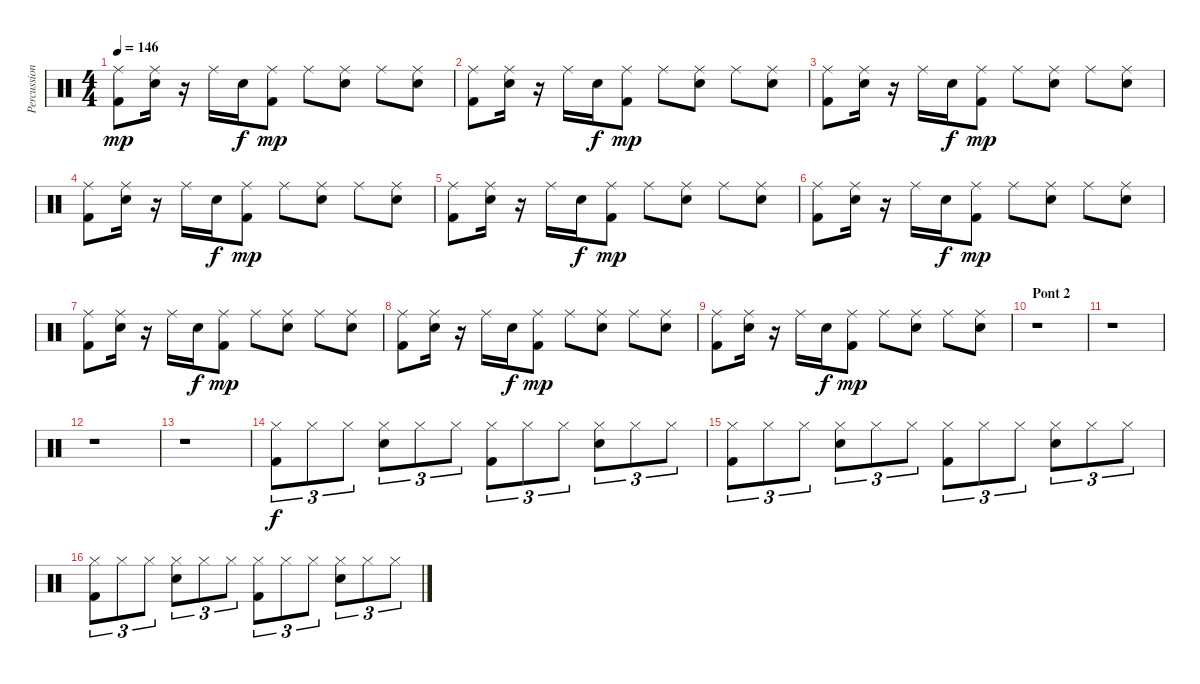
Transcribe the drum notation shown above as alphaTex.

\track ("Percussions" "Percussion") {instrument percussion}
\staff {score}
\articulation defaults
\ts (4 4)
\tempo 146
\clef neutral
\ks c
("Ride (middle)" "Kick (hit) 2").8{dy mp} ("Ride (middle)" "Electric Snare (hit)").16 r.16 "Ride (middle)".16 "Electric Snare (hit)".16{dy f} ("Ride (middle)" "Kick (hit) 2").8{dy mp} "Ride (middle)".8 ("Ride (middle)" "Electric Snare (hit)").8 "Ride (middle)".8 ("Ride (middle)" "Electric Snare (hit)").8 |
("Ride (middle)" "Kick (hit) 2").8 ("Ride (middle)" "Electric Snare (hit)").16 r.16 "Ride (middle)".16 "Electric Snare (hit)".16{dy f} ("Ride (middle)" "Kick (hit) 2").8{dy mp} "Ride (middle)".8 ("Ride (middle)" "Electric Snare (hit)").8 "Ride (middle)".8 ("Ride (middle)" "Electric Snare (hit)").8 |
("Ride (middle)" "Kick (hit) 2").8 ("Ride (middle)" "Electric Snare (hit)").16 r.16 "Ride (middle)".16 "Electric Snare (hit)".16{dy f} ("Ride (middle)" "Kick (hit) 2").8{dy mp} "Ride (middle)".8 ("Ride (middle)" "Electric Snare (hit)").8 "Ride (middle)".8 ("Ride (middle)" "Electric Snare (hit)").8 |
("Ride (middle)" "Kick (hit) 2").8 ("Ride (middle)" "Electric Snare (hit)").16 r.16 "Ride (middle)".16 "Electric Snare (hit)".16{dy f} ("Ride (middle)" "Kick (hit) 2").8{dy mp} "Ride (middle)".8 ("Ride (middle)" "Electric Snare (hit)").8 "Ride (middle)".8 ("Ride (middle)" "Electric Snare (hit)").8 |
("Ride (middle)" "Kick (hit) 2").8 ("Ride (middle)" "Electric Snare (hit)").16 r.16 "Ride (middle)".16 "Electric Snare (hit)".16{dy f} ("Ride (middle)" "Kick (hit) 2").8{dy mp} "Ride (middle)".8 ("Ride (middle)" "Electric Snare (hit)").8 "Ride (middle)".8 ("Ride (middle)" "Electric Snare (hit)").8 |
("Ride (middle)" "Kick (hit) 2").8 ("Ride (middle)" "Electric Snare (hit)").16 r.16 "Ride (middle)".16 "Electric Snare (hit)".16{dy f} ("Ride (middle)" "Kick (hit) 2").8{dy mp} "Ride (middle)".8 ("Ride (middle)" "Electric Snare (hit)").8 "Ride (middle)".8 ("Ride (middle)" "Electric Snare (hit)").8 |
("Ride (middle)" "Kick (hit) 2").8 ("Ride (middle)" "Electric Snare (hit)").16 r.16 "Ride (middle)".16 "Electric Snare (hit)".16{dy f} ("Ride (middle)" "Kick (hit) 2").8{dy mp} "Ride (middle)".8 ("Ride (middle)" "Electric Snare (hit)").8 "Ride (middle)".8 ("Ride (middle)" "Electric Snare (hit)").8 |
("Ride (middle)" "Kick (hit) 2").8 ("Ride (middle)" "Electric Snare (hit)").16 r.16 "Ride (middle)".16 "Electric Snare (hit)".16{dy f} ("Ride (middle)" "Kick (hit) 2").8{dy mp} "Ride (middle)".8 ("Ride (middle)" "Electric Snare (hit)").8 "Ride (middle)".8 ("Ride (middle)" "Electric Snare (hit)").8 |
("Ride (middle)" "Kick (hit) 2").8 ("Ride (middle)" "Electric Snare (hit)").16 r.16 "Ride (middle)".16 "Electric Snare (hit)".16{dy f} ("Ride (middle)" "Kick (hit) 2").8{dy mp} "Ride (middle)".8 ("Ride (middle)" "Electric Snare (hit)").8 "Ride (middle)".8 ("Ride (middle)" "Electric Snare (hit)").8 |
\section ("" "Pont 2")
r.1 |
r.1 |
r.1 |
r.1 |
("Hi-Hat (closed)" "Kick (hit) 2").8{tu (3 2) dy f} "Hi-Hat (closed)".8{tu (3 2)} "Hi-Hat (closed)".8{tu (3 2)} ("Hi-Hat (closed)" "Electric Snare (hit)").8{tu (3 2)} "Hi-Hat (closed)".8{tu (3 2)} "Hi-Hat (closed)".8{tu (3 2)} ("Hi-Hat (closed)" "Kick (hit) 2").8{tu (3 2)} "Hi-Hat (closed)".8{tu (3 2)} "Hi-Hat (closed)".8{tu (3 2)} ("Hi-Hat (closed)" "Electric Snare (hit)").8{tu (3 2)} "Hi-Hat (closed)".8{tu (3 2)} "Hi-Hat (closed)".8{tu (3 2)} |
("Hi-Hat (closed)" "Kick (hit) 2").8{tu (3 2)} "Hi-Hat (closed)".8{tu (3 2)} "Hi-Hat (closed)".8{tu (3 2)} ("Hi-Hat (closed)" "Electric Snare (hit)").8{tu (3 2)} "Hi-Hat (closed)".8{tu (3 2)} "Hi-Hat (closed)".8{tu (3 2)} ("Hi-Hat (closed)" "Kick (hit) 2").8{tu (3 2)} "Hi-Hat (closed)".8{tu (3 2)} "Hi-Hat (closed)".8{tu (3 2)} ("Hi-Hat (closed)" "Electric Snare (hit)").8{tu (3 2)} "Hi-Hat (closed)".8{tu (3 2)} "Hi-Hat (closed)".8{tu (3 2)} |
("Hi-Hat (closed)" "Kick (hit) 2").8{tu (3 2)} "Hi-Hat (closed)".8{tu (3 2)} "Hi-Hat (closed)".8{tu (3 2)} ("Hi-Hat (closed)" "Electric Snare (hit)").8{tu (3 2)} "Hi-Hat (closed)".8{tu (3 2)} "Hi-Hat (closed)".8{tu (3 2)} ("Hi-Hat (closed)" "Kick (hit) 2").8{tu (3 2)} "Hi-Hat (closed)".8{tu (3 2)} "Hi-Hat (closed)".8{tu (3 2)} ("Hi-Hat (closed)" "Electric Snare (hit)").8{tu (3 2)} "Hi-Hat (closed)".8{tu (3 2)} "Hi-Hat (closed)".8{tu (3 2)}
